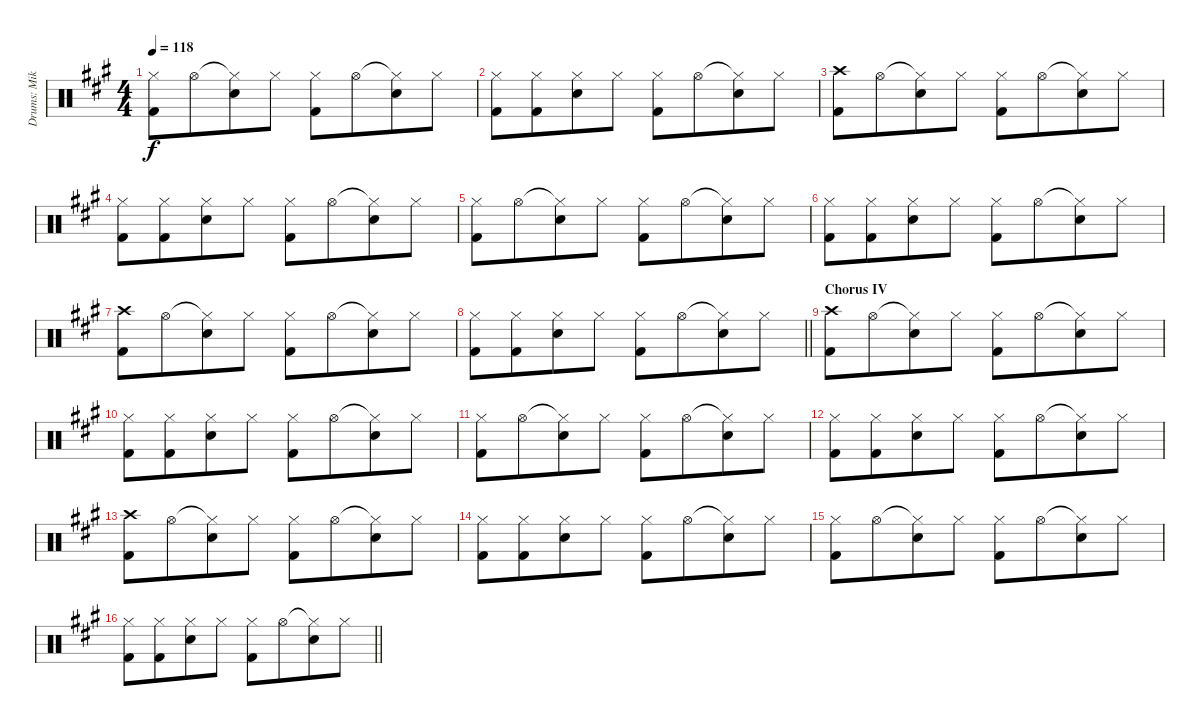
\track ("Drums: Mike" "Drums: Mik") {instrument percussion}
\staff {score}
\articulation defaults
\ts (4 4)
\tempo 118
\clef neutral
\ks a
("Hi-Hat (closed)" "Kick (hit) 2").8{dy f} "Hi-Hat (open)".8{beam merge} ("Hi-Hat (closed)"{t} "Electric Snare (hit)").8{beam merge} "Hi-Hat (closed)".8 ("Hi-Hat (closed)" "Kick (hit) 2").8 "Hi-Hat (open)".8{beam merge} ("Hi-Hat (closed)"{t} "Electric Snare (hit)").8{beam merge} "Hi-Hat (closed)".8 |
("Hi-Hat (closed)" "Kick (hit) 2").8 ("Hi-Hat (closed)" "Kick (hit) 2").8{beam merge} ("Hi-Hat (closed)" "Electric Snare (hit)").8{beam merge} "Hi-Hat (closed)".8 ("Hi-Hat (closed)" "Kick (hit) 2").8 "Hi-Hat (open)".8{beam merge} ("Hi-Hat (closed)"{t} "Electric Snare (hit)").8{beam merge} "Hi-Hat (closed)".8 |
("Crash high (hit)" "Kick (hit) 2").8 "Hi-Hat (open)".8{beam merge} ("Hi-Hat (closed)"{t} "Electric Snare (hit)").8{beam merge} "Hi-Hat (closed)".8 ("Hi-Hat (closed)" "Kick (hit) 2").8 "Hi-Hat (open)".8{beam merge} ("Hi-Hat (closed)"{t} "Electric Snare (hit)").8{beam merge} "Hi-Hat (closed)".8 |
("Hi-Hat (closed)" "Kick (hit) 2").8 ("Hi-Hat (closed)" "Kick (hit) 2").8{beam merge} ("Hi-Hat (closed)" "Electric Snare (hit)").8{beam merge} "Hi-Hat (closed)".8 ("Hi-Hat (closed)" "Kick (hit) 2").8 "Hi-Hat (open)".8{beam merge} ("Hi-Hat (closed)"{t} "Electric Snare (hit)").8{beam merge} "Hi-Hat (closed)".8 |
("Hi-Hat (closed)" "Kick (hit) 2").8 "Hi-Hat (open)".8{beam merge} ("Hi-Hat (closed)"{t} "Electric Snare (hit)").8{beam merge} "Hi-Hat (closed)".8 ("Hi-Hat (closed)" "Kick (hit) 2").8 "Hi-Hat (open)".8{beam merge} ("Hi-Hat (closed)"{t} "Electric Snare (hit)").8{beam merge} "Hi-Hat (closed)".8 |
("Hi-Hat (closed)" "Kick (hit) 2").8 ("Hi-Hat (closed)" "Kick (hit) 2").8{beam merge} ("Hi-Hat (closed)" "Electric Snare (hit)").8{beam merge} "Hi-Hat (closed)".8 ("Hi-Hat (closed)" "Kick (hit) 2").8 "Hi-Hat (open)".8{beam merge} ("Hi-Hat (closed)"{t} "Electric Snare (hit)").8{beam merge} "Hi-Hat (closed)".8 |
("Crash high (hit)" "Kick (hit) 2").8 "Hi-Hat (open)".8{beam merge} ("Hi-Hat (closed)"{t} "Electric Snare (hit)").8{beam merge} "Hi-Hat (closed)".8 ("Hi-Hat (closed)" "Kick (hit) 2").8 "Hi-Hat (open)".8{beam merge} ("Hi-Hat (closed)"{t} "Electric Snare (hit)").8{beam merge} "Hi-Hat (closed)".8 |
\barLineRight lightlight
("Hi-Hat (closed)" "Kick (hit) 2").8 ("Hi-Hat (closed)" "Kick (hit) 2").8{beam merge} ("Hi-Hat (closed)" "Electric Snare (hit)").8{beam merge} "Hi-Hat (closed)".8 ("Hi-Hat (closed)" "Kick (hit) 2").8 "Hi-Hat (open)".8{beam merge} ("Hi-Hat (closed)"{t} "Electric Snare (hit)").8{beam merge} "Hi-Hat (closed)".8 |
\section ("" "Chorus IV")
("Crash high (hit)" "Kick (hit) 2").8 "Hi-Hat (open)".8{beam merge} ("Hi-Hat (closed)"{t} "Electric Snare (hit)").8{beam merge} "Hi-Hat (closed)".8 ("Hi-Hat (closed)" "Kick (hit) 2").8 "Hi-Hat (open)".8{beam merge} ("Hi-Hat (closed)"{t} "Electric Snare (hit)").8{beam merge} "Hi-Hat (closed)".8 |
("Hi-Hat (closed)" "Kick (hit) 2").8 ("Hi-Hat (closed)" "Kick (hit) 2").8{beam merge} ("Hi-Hat (closed)" "Electric Snare (hit)").8{beam merge} "Hi-Hat (closed)".8 ("Hi-Hat (closed)" "Kick (hit) 2").8 "Hi-Hat (open)".8{beam merge} ("Hi-Hat (closed)"{t} "Electric Snare (hit)").8{beam merge} "Hi-Hat (closed)".8 |
("Hi-Hat (closed)" "Kick (hit) 2").8 "Hi-Hat (open)".8{beam merge} ("Hi-Hat (closed)"{t} "Electric Snare (hit)").8{beam merge} "Hi-Hat (closed)".8 ("Hi-Hat (closed)" "Kick (hit) 2").8 "Hi-Hat (open)".8{beam merge} ("Hi-Hat (closed)"{t} "Electric Snare (hit)").8{beam merge} "Hi-Hat (closed)".8 |
("Hi-Hat (closed)" "Kick (hit) 2").8 ("Hi-Hat (closed)" "Kick (hit) 2").8{beam merge} ("Hi-Hat (closed)" "Electric Snare (hit)").8{beam merge} "Hi-Hat (closed)".8 ("Hi-Hat (closed)" "Kick (hit) 2").8 "Hi-Hat (open)".8{beam merge} ("Hi-Hat (closed)"{t} "Electric Snare (hit)").8{beam merge} "Hi-Hat (closed)".8 |
("Crash high (hit)" "Kick (hit) 2").8 "Hi-Hat (open)".8{beam merge} ("Hi-Hat (closed)"{t} "Electric Snare (hit)").8{beam merge} "Hi-Hat (closed)".8 ("Hi-Hat (closed)" "Kick (hit) 2").8 "Hi-Hat (open)".8{beam merge} ("Hi-Hat (closed)"{t} "Electric Snare (hit)").8{beam merge} "Hi-Hat (closed)".8 |
("Hi-Hat (closed)" "Kick (hit) 2").8 ("Hi-Hat (closed)" "Kick (hit) 2").8{beam merge} ("Hi-Hat (closed)" "Electric Snare (hit)").8{beam merge} "Hi-Hat (closed)".8 ("Hi-Hat (closed)" "Kick (hit) 2").8 "Hi-Hat (open)".8{beam merge} ("Hi-Hat (closed)"{t} "Electric Snare (hit)").8{beam merge} "Hi-Hat (closed)".8 |
("Hi-Hat (closed)" "Kick (hit) 2").8 "Hi-Hat (open)".8{beam merge} ("Hi-Hat (closed)"{t} "Electric Snare (hit)").8{beam merge} "Hi-Hat (closed)".8 ("Hi-Hat (closed)" "Kick (hit) 2").8 "Hi-Hat (open)".8{beam merge} ("Hi-Hat (closed)"{t} "Electric Snare (hit)").8{beam merge} "Hi-Hat (closed)".8 |
\barLineRight lightlight
("Hi-Hat (closed)" "Kick (hit) 2").8 ("Hi-Hat (closed)" "Kick (hit) 2").8{beam merge} ("Hi-Hat (closed)" "Electric Snare (hit)").8{beam merge} "Hi-Hat (closed)".8 ("Hi-Hat (closed)" "Kick (hit) 2").8 "Hi-Hat (open)".8{beam merge} ("Hi-Hat (closed)"{t} "Electric Snare (hit)").8{beam merge} "Hi-Hat (closed)".8
